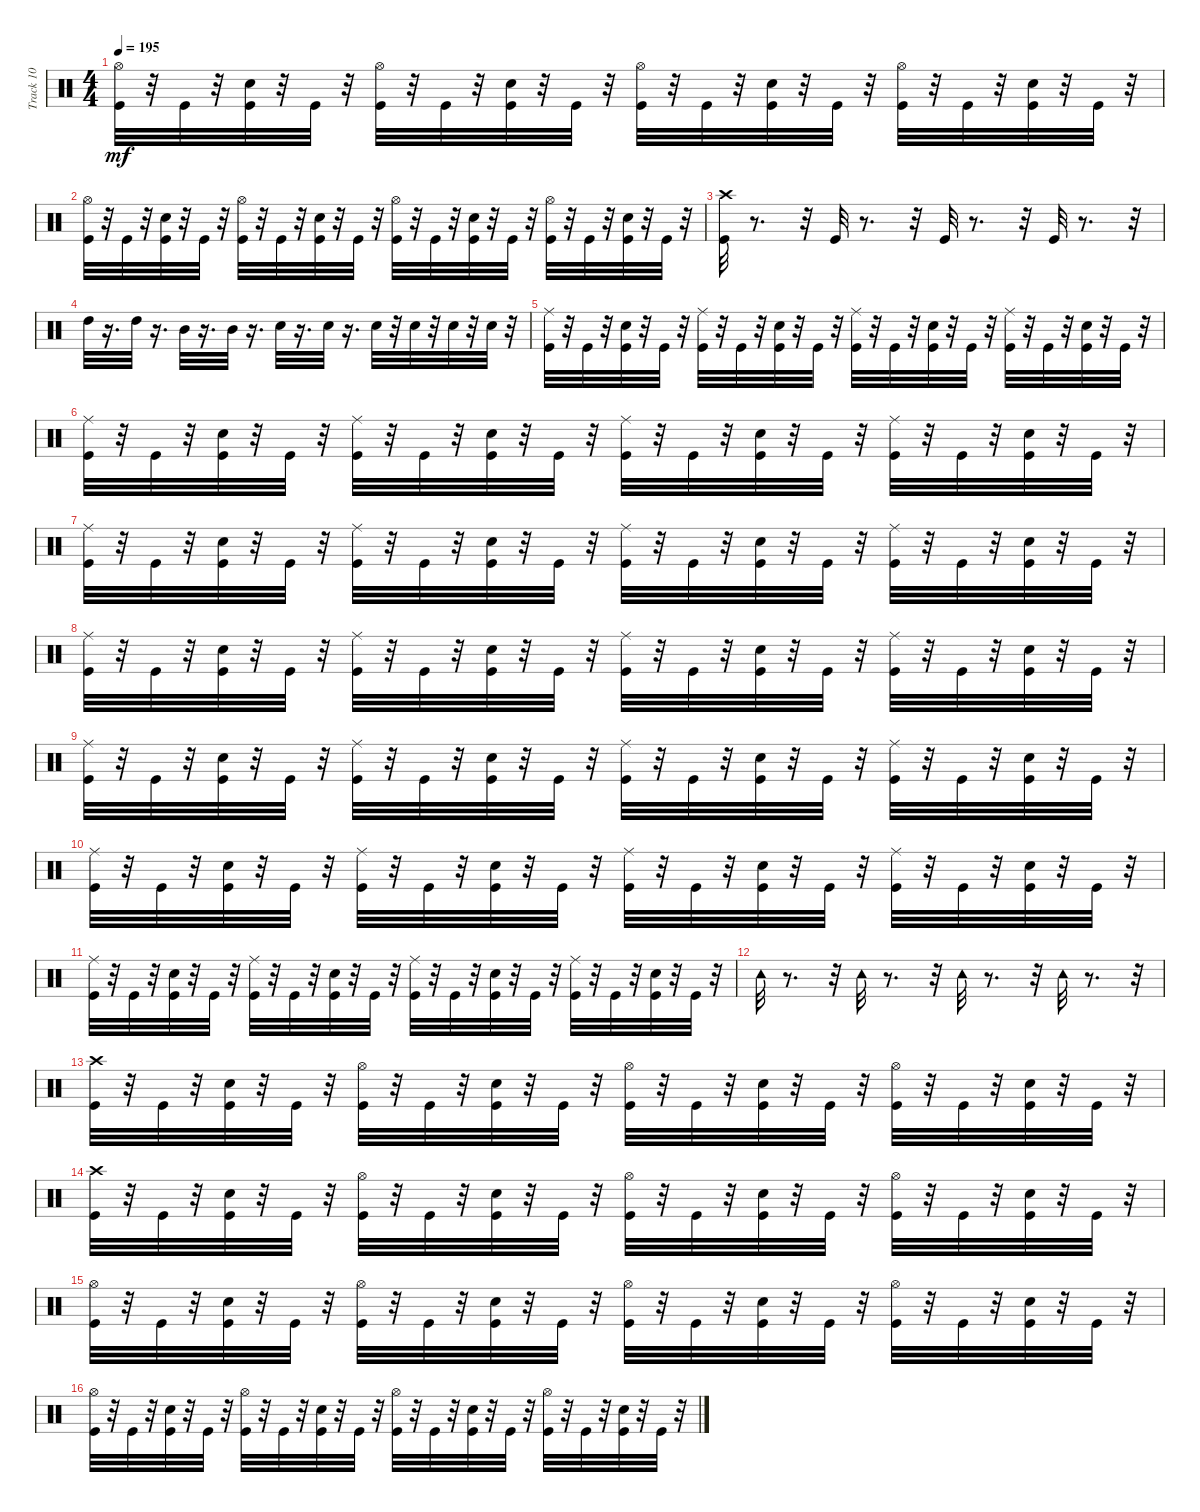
\track ("Track 10" "Track 10") {instrument percussion}
\staff {score}
\articulation defaults
\ts (4 4)
\tempo 195
\clef neutral
\ks c
("Hi-Hat (open)" "Kick (hit)").32{dy mf} r.32 "Kick (hit)".32 r.32 ("Electric Snare (hit)" "Kick (hit)").32 r.32 "Kick (hit)".32 r.32 ("Hi-Hat (open)" "Kick (hit)").32 r.32 "Kick (hit)".32 r.32 ("Electric Snare (hit)" "Kick (hit)").32 r.32 "Kick (hit)".32 r.32 ("Hi-Hat (open)" "Kick (hit)").32 r.32 "Kick (hit)".32 r.32 ("Electric Snare (hit)" "Kick (hit)").32 r.32 "Kick (hit)".32 r.32 ("Hi-Hat (open)" "Kick (hit)").32 r.32 "Kick (hit)".32 r.32 ("Electric Snare (hit)" "Kick (hit)").32 r.32 "Kick (hit)".32 r.32 |
("Hi-Hat (open)" "Kick (hit)").32 r.32 "Kick (hit)".32 r.32 ("Electric Snare (hit)" "Kick (hit)").32 r.32 "Kick (hit)".32 r.32 ("Hi-Hat (open)" "Kick (hit)").32 r.32 "Kick (hit)".32 r.32 ("Electric Snare (hit)" "Kick (hit)").32 r.32 "Kick (hit)".32 r.32 ("Hi-Hat (open)" "Kick (hit)").32 r.32 "Kick (hit)".32 r.32 ("Electric Snare (hit)" "Kick (hit)").32 r.32 "Kick (hit)".32 r.32 ("Hi-Hat (open)" "Kick (hit)").32 r.32 "Kick (hit)".32 r.32 ("Electric Snare (hit)" "Kick (hit)").32 r.32 "Kick (hit)".32 r.32 |
("Crash high (hit)" "Kick (hit)").32 r.8{d} r.32 "Kick (hit)".32 r.8{d} r.32 "Kick (hit)".32 r.8{d} r.32 "Kick (hit)".32 r.8{d} r.32 |
"High Tom (hit)".32 r.16{d} "High Tom (hit)".32 r.16{d} "Mid Tom (hit)".32 r.16{d} "Mid Tom (hit)".32 r.16{d} "Electric Snare (hit)".32 r.16{d} "Electric Snare (hit)".32 r.16{d} "Electric Snare (hit)".32 r.32 "Electric Snare (hit)".32 r.32 "Electric Snare (hit)".32 r.32 "Electric Snare (hit)".32 r.32 |
("Kick (hit)" "Ride (middle)").32 r.32 "Kick (hit)".32 r.32 ("Kick (hit)" "Electric Snare (hit)").32 r.32 "Kick (hit)".32 r.32 ("Ride (middle)" "Kick (hit)").32 r.32 "Kick (hit)".32 r.32 ("Electric Snare (hit)" "Kick (hit)").32 r.32 "Kick (hit)".32 r.32 ("Kick (hit)" "Ride (middle)").32 r.32 "Kick (hit)".32 r.32 ("Kick (hit)" "Electric Snare (hit)").32 r.32 "Kick (hit)".32 r.32 ("Ride (middle)" "Kick (hit)").32 r.32 "Kick (hit)".32 r.32 ("Kick (hit)" "Electric Snare (hit)").32 r.32 "Kick (hit)".32 r.32 |
("Kick (hit)" "Ride (middle)").32 r.32 "Kick (hit)".32 r.32 ("Kick (hit)" "Electric Snare (hit)").32 r.32 "Kick (hit)".32 r.32 ("Ride (middle)" "Kick (hit)").32 r.32 "Kick (hit)".32 r.32 ("Electric Snare (hit)" "Kick (hit)").32 r.32 "Kick (hit)".32 r.32 ("Kick (hit)" "Ride (middle)").32 r.32 "Kick (hit)".32 r.32 ("Electric Snare (hit)" "Kick (hit)").32 r.32 "Kick (hit)".32 r.32 ("Kick (hit)" "Ride (middle)").32 r.32 "Kick (hit)".32 r.32 ("Kick (hit)" "Electric Snare (hit)").32 r.32 "Kick (hit)".32 r.32 |
("Kick (hit)" "Ride (middle)").32 r.32 "Kick (hit)".32 r.32 ("Kick (hit)" "Electric Snare (hit)").32 r.32 "Kick (hit)".32 r.32 ("Ride (middle)" "Kick (hit)").32 r.32 "Kick (hit)".32 r.32 ("Electric Snare (hit)" "Kick (hit)").32 r.32 "Kick (hit)".32 r.32 ("Kick (hit)" "Ride (middle)").32 r.32 "Kick (hit)".32 r.32 ("Electric Snare (hit)" "Kick (hit)").32 r.32 "Kick (hit)".32 r.32 ("Kick (hit)" "Ride (middle)").32 r.32 "Kick (hit)".32 r.32 ("Kick (hit)" "Electric Snare (hit)").32 r.32 "Kick (hit)".32 r.32 |
("Kick (hit)" "Ride (middle)").32 r.32 "Kick (hit)".32 r.32 ("Kick (hit)" "Electric Snare (hit)").32 r.32 "Kick (hit)".32 r.32 ("Ride (middle)" "Kick (hit)").32 r.32 "Kick (hit)".32 r.32 ("Electric Snare (hit)" "Kick (hit)").32 r.32 "Kick (hit)".32 r.32 ("Kick (hit)" "Ride (middle)").32 r.32 "Kick (hit)".32 r.32 ("Electric Snare (hit)" "Kick (hit)").32 r.32 "Kick (hit)".32 r.32 ("Kick (hit)" "Ride (middle)").32 r.32 "Kick (hit)".32 r.32 ("Kick (hit)" "Electric Snare (hit)").32 r.32 "Kick (hit)".32 r.32 |
("Kick (hit)" "Ride (middle)").32 r.32 "Kick (hit)".32 r.32 ("Kick (hit)" "Electric Snare (hit)").32 r.32 "Kick (hit)".32 r.32 ("Ride (middle)" "Kick (hit)").32 r.32 "Kick (hit)".32 r.32 ("Electric Snare (hit)" "Kick (hit)").32 r.32 "Kick (hit)".32 r.32 ("Kick (hit)" "Ride (middle)").32 r.32 "Kick (hit)".32 r.32 ("Electric Snare (hit)" "Kick (hit)").32 r.32 "Kick (hit)".32 r.32 ("Kick (hit)" "Ride (middle)").32 r.32 "Kick (hit)".32 r.32 ("Kick (hit)" "Electric Snare (hit)").32 r.32 "Kick (hit)".32 r.32 |
("Kick (hit)" "Ride (middle)").32 r.32 "Kick (hit)".32 r.32 ("Kick (hit)" "Electric Snare (hit)").32 r.32 "Kick (hit)".32 r.32 ("Ride (middle)" "Kick (hit)").32 r.32 "Kick (hit)".32 r.32 ("Electric Snare (hit)" "Kick (hit)").32 r.32 "Kick (hit)".32 r.32 ("Kick (hit)" "Ride (middle)").32 r.32 "Kick (hit)".32 r.32 ("Electric Snare (hit)" "Kick (hit)").32 r.32 "Kick (hit)".32 r.32 ("Kick (hit)" "Ride (middle)").32 r.32 "Kick (hit)".32 r.32 ("Kick (hit)" "Electric Snare (hit)").32 r.32 "Kick (hit)".32 r.32 |
("Kick (hit)" "Ride (middle)").32 r.32 "Kick (hit)".32 r.32 ("Electric Snare (hit)" "Kick (hit)").32 r.32 "Kick (hit)".32 r.32 ("Kick (hit)" "Ride (middle)").32 r.32 "Kick (hit)".32 r.32 ("Electric Snare (hit)" "Kick (hit)").32 r.32 "Kick (hit)".32 r.32 ("Ride (middle)" "Kick (hit)").32 r.32 "Kick (hit)".32 r.32 ("Kick (hit)" "Electric Snare (hit)").32 r.32 "Kick (hit)".32 r.32 ("Kick (hit)" "Ride (middle)").32 r.32 "Kick (hit)".32 r.32 ("Electric Snare (hit)" "Kick (hit)").32 r.32 "Kick (hit)".32 r.32 |
"Tambourine (hit)".32 r.8{d} r.32 "Tambourine (hit)".32 r.8{d} r.32 "Tambourine (hit)".32 r.8{d} r.32 "Tambourine (hit)".32 r.8{d} r.32 |
("Crash high (hit)" "Kick (hit)").32 r.32 "Kick (hit)".32 r.32 ("Electric Snare (hit)" "Kick (hit)").32 r.32 "Kick (hit)".32 r.32 ("Kick (hit)" "Hi-Hat (open)").32 r.32 "Kick (hit)".32 r.32 ("Electric Snare (hit)" "Kick (hit)").32 r.32 "Kick (hit)".32 r.32 ("Hi-Hat (open)" "Kick (hit)").32 r.32 "Kick (hit)".32 r.32 ("Electric Snare (hit)" "Kick (hit)").32 r.32 "Kick (hit)".32 r.32 ("Hi-Hat (open)" "Kick (hit)").32 r.32 "Kick (hit)".32 r.32 ("Electric Snare (hit)" "Kick (hit)").32 r.32 "Kick (hit)".32 r.32 |
("Crash high (hit)" "Kick (hit)").32 r.32 "Kick (hit)".32 r.32 ("Electric Snare (hit)" "Kick (hit)").32 r.32 "Kick (hit)".32 r.32 ("Kick (hit)" "Hi-Hat (open)").32 r.32 "Kick (hit)".32 r.32 ("Electric Snare (hit)" "Kick (hit)").32 r.32 "Kick (hit)".32 r.32 ("Hi-Hat (open)" "Kick (hit)").32 r.32 "Kick (hit)".32 r.32 ("Electric Snare (hit)" "Kick (hit)").32 r.32 "Kick (hit)".32 r.32 ("Hi-Hat (open)" "Kick (hit)").32 r.32 "Kick (hit)".32 r.32 ("Electric Snare (hit)" "Kick (hit)").32 r.32 "Kick (hit)".32 r.32 |
("Hi-Hat (open)" "Kick (hit)").32 r.32 "Kick (hit)".32 r.32 ("Electric Snare (hit)" "Kick (hit)").32 r.32 "Kick (hit)".32 r.32 ("Kick (hit)" "Hi-Hat (open)").32 r.32 "Kick (hit)".32 r.32 ("Electric Snare (hit)" "Kick (hit)").32 r.32 "Kick (hit)".32 r.32 ("Hi-Hat (open)" "Kick (hit)").32 r.32 "Kick (hit)".32 r.32 ("Electric Snare (hit)" "Kick (hit)").32 r.32 "Kick (hit)".32 r.32 ("Hi-Hat (open)" "Kick (hit)").32 r.32 "Kick (hit)".32 r.32 ("Electric Snare (hit)" "Kick (hit)").32 r.32 "Kick (hit)".32 r.32 |
("Hi-Hat (open)" "Kick (hit)").32 r.32 "Kick (hit)".32 r.32 ("Electric Snare (hit)" "Kick (hit)").32 r.32 "Kick (hit)".32 r.32 ("Kick (hit)" "Hi-Hat (open)").32 r.32 "Kick (hit)".32 r.32 ("Electric Snare (hit)" "Kick (hit)").32 r.32 "Kick (hit)".32 r.32 ("Hi-Hat (open)" "Kick (hit)").32 r.32 "Kick (hit)".32 r.32 ("Electric Snare (hit)" "Kick (hit)").32 r.32 "Kick (hit)".32 r.32 ("Hi-Hat (open)" "Kick (hit)").32 r.32 "Kick (hit)".32 r.32 ("Electric Snare (hit)" "Kick (hit)").32 r.32 "Kick (hit)".32 r.32
